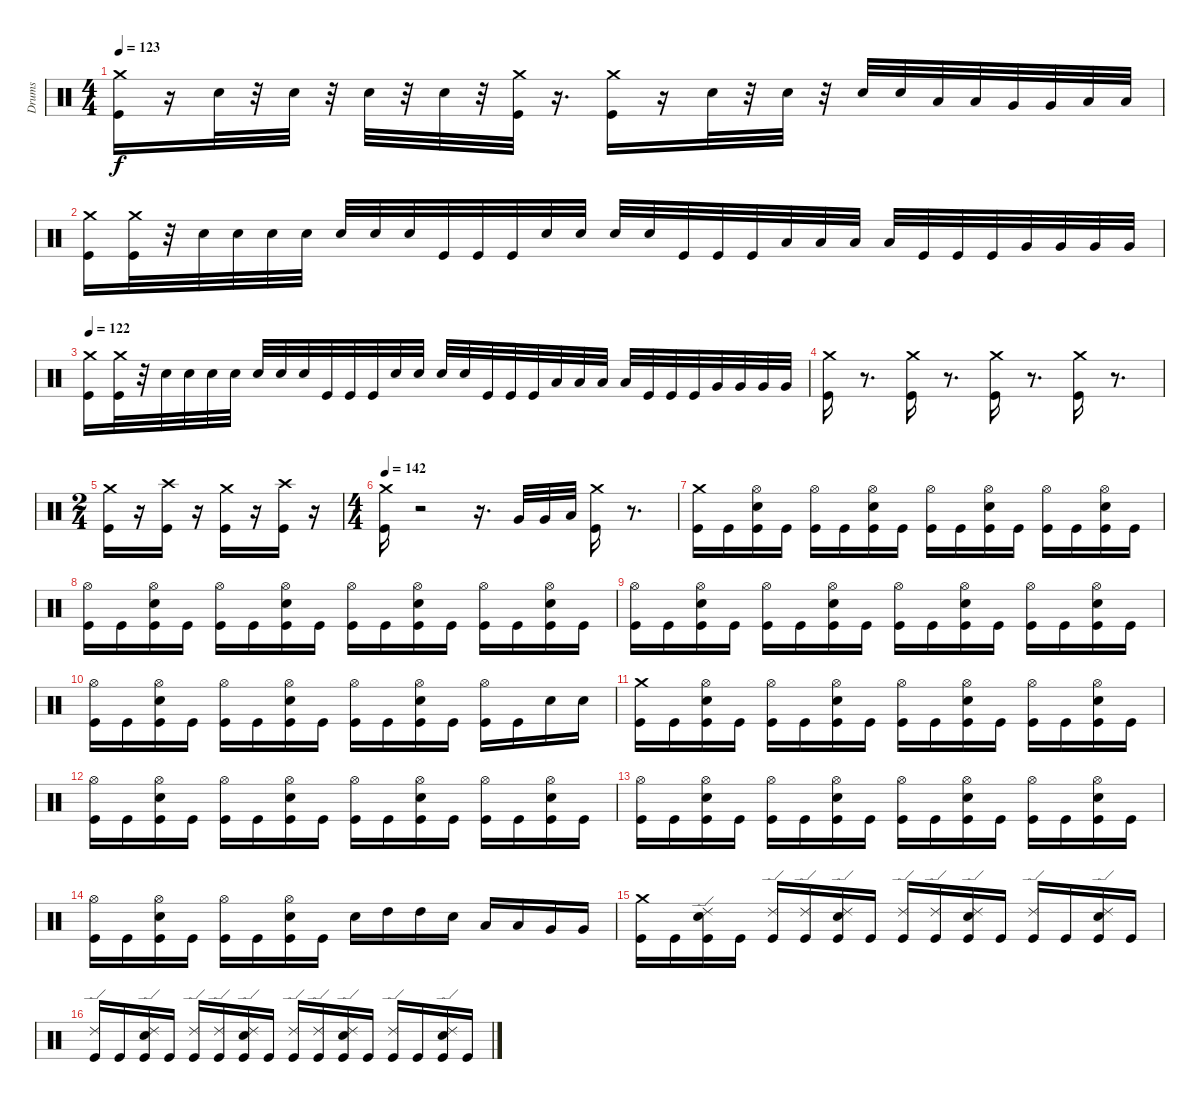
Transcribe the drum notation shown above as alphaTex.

\track ("Drums" "Drums") {instrument percussion}
\staff {score}
\articulation defaults
\ts (4 4)
\tempo 123
\clef neutral
\ks c
("Kick (hit)" "Crash medium (hit)").16{dy f} r.16 "Electric Snare (hit)".32 r.32 "Electric Snare (hit)".32 r.32 "Electric Snare (hit)".32 r.32 "Electric Snare (hit)".32 r.32 ("Crash medium (hit)" "Kick (hit)").32 r.16{d} ("Crash medium (hit)" "Kick (hit)").16 r.16 "Electric Snare (hit)".32 r.32 "Electric Snare (hit)".32 r.32 "Electric Snare (hit)".32 "Electric Snare (hit)".32 "Low Tom (hit)".32 "Low Tom (hit)".32 "Very Low Tom (hit)".32 "Very Low Tom (hit)".32 "Low Floor Tom (hit)".32 "Low Floor Tom (hit)".32 |
("Crash medium (hit)" "Kick (hit)").16 ("Crash medium (hit)" "Kick (hit)").32 r.32 "Electric Snare (hit)".32 "Electric Snare (hit)".32 "Electric Snare (hit)".32 "Electric Snare (hit)".32 "Electric Snare (hit)".32 "Electric Snare (hit)".32 "Electric Snare (hit)".32 "Kick (hit)".32 "Kick (hit)".32 "Kick (hit)".32 "Electric Snare (hit)".32 "Electric Snare (hit)".32 "Electric Snare (hit)".32 "Electric Snare (hit)".32 "Kick (hit)".32 "Kick (hit)".32 "Kick (hit)".32 "Low Tom (hit)".32 "Low Tom (hit)".32 "Low Tom (hit)".32 "Low Tom (hit)".32 "Kick (hit)".32 "Kick (hit)".32 "Kick (hit)".32 "Very Low Tom (hit)".32 "Very Low Tom (hit)".32 "Very Low Tom (hit)".32 "Very Low Tom (hit)".32 |
\tempo 122
("Crash medium (hit)" "Kick (hit)").16 ("Crash medium (hit)" "Kick (hit)").32 r.32 "Electric Snare (hit)".32 "Electric Snare (hit)".32 "Electric Snare (hit)".32 "Electric Snare (hit)".32 "Electric Snare (hit)".32 "Electric Snare (hit)".32 "Electric Snare (hit)".32 "Kick (hit)".32 "Kick (hit)".32 "Kick (hit)".32 "Electric Snare (hit)".32 "Electric Snare (hit)".32 "Electric Snare (hit)".32 "Electric Snare (hit)".32 "Kick (hit)".32 "Kick (hit)".32 "Kick (hit)".32 "Low Tom (hit)".32 "Low Tom (hit)".32 "Low Tom (hit)".32 "Low Tom (hit)".32 "Kick (hit)".32 "Kick (hit)".32 "Kick (hit)".32 "Very Low Tom (hit)".32 "Very Low Tom (hit)".32 "Very Low Tom (hit)".32 "Very Low Tom (hit)".32 |
("Crash medium (hit)" "Kick (hit)").16 r.8{d} ("Crash medium (hit)" "Kick (hit)").16 r.8{d} ("Kick (hit)" "Crash medium (hit)").16 r.8{d} ("Crash medium (hit)" "Kick (hit)").16 r.8{d} |
\ts (2 4)
("Crash medium (hit)" "Kick (hit)").16 r.16 ("Kick (hit)" "Crash high (hit)").16 r.16 ("Kick (hit)" "Crash medium (hit)").16 r.16 ("Kick (hit)" "Crash high (hit)").16 r.16 |
\ts (4 4)
\tempo 142
("Kick (hit)" "Crash medium (hit)").16 r.2 r.16{d} "Very Low Tom (hit)".32 "Very Low Tom (hit)".32 "Low Floor Tom (hit)".32 ("Crash medium (hit)" "Kick (hit)").16 r.8{d} |
("Crash medium (hit)" "Kick (hit)").16 "Kick (hit)".16 ("Hi-Hat (open)" "Electric Snare (hit)" "Kick (hit)").16 "Kick (hit)".16 ("Hi-Hat (open)" "Kick (hit)").16 "Kick (hit)".16 ("Hi-Hat (open)" "Electric Snare (hit)" "Kick (hit)").16 "Kick (hit)".16 ("Hi-Hat (open)" "Kick (hit)").16 "Kick (hit)".16 ("Hi-Hat (open)" "Electric Snare (hit)" "Kick (hit)").16 "Kick (hit)".16 ("Hi-Hat (open)" "Kick (hit)").16 "Kick (hit)".16 ("Hi-Hat (open)" "Electric Snare (hit)" "Kick (hit)").16 "Kick (hit)".16 |
("Hi-Hat (open)" "Kick (hit)").16 "Kick (hit)".16 ("Hi-Hat (open)" "Electric Snare (hit)" "Kick (hit)").16 "Kick (hit)".16 ("Hi-Hat (open)" "Kick (hit)").16 "Kick (hit)".16 ("Hi-Hat (open)" "Electric Snare (hit)" "Kick (hit)").16 "Kick (hit)".16 ("Hi-Hat (open)" "Kick (hit)").16 "Kick (hit)".16 ("Hi-Hat (open)" "Electric Snare (hit)" "Kick (hit)").16 "Kick (hit)".16 ("Hi-Hat (open)" "Kick (hit)").16 "Kick (hit)".16 ("Hi-Hat (open)" "Electric Snare (hit)" "Kick (hit)").16 "Kick (hit)".16 |
("Hi-Hat (open)" "Kick (hit)").16 "Kick (hit)".16 ("Hi-Hat (open)" "Electric Snare (hit)" "Kick (hit)").16 "Kick (hit)".16 ("Hi-Hat (open)" "Kick (hit)").16 "Kick (hit)".16 ("Hi-Hat (open)" "Electric Snare (hit)" "Kick (hit)").16 "Kick (hit)".16 ("Hi-Hat (open)" "Kick (hit)").16 "Kick (hit)".16 ("Hi-Hat (open)" "Electric Snare (hit)" "Kick (hit)").16 "Kick (hit)".16 ("Hi-Hat (open)" "Kick (hit)").16 "Kick (hit)".16 ("Hi-Hat (open)" "Electric Snare (hit)" "Kick (hit)").16 "Kick (hit)".16 |
("Hi-Hat (open)" "Kick (hit)").16 "Kick (hit)".16 ("Hi-Hat (open)" "Electric Snare (hit)" "Kick (hit)").16 "Kick (hit)".16 ("Hi-Hat (open)" "Kick (hit)").16 "Kick (hit)".16 ("Hi-Hat (open)" "Electric Snare (hit)" "Kick (hit)").16 "Kick (hit)".16 ("Hi-Hat (open)" "Kick (hit)").16 "Kick (hit)".16 ("Hi-Hat (open)" "Electric Snare (hit)" "Kick (hit)").16 "Kick (hit)".16 ("Hi-Hat (open)" "Kick (hit)").16 "Kick (hit)".16 "Electric Snare (hit)".16 "Electric Snare (hit)".16 |
("Crash medium (hit)" "Kick (hit)").16 "Kick (hit)".16 ("Hi-Hat (open)" "Electric Snare (hit)" "Kick (hit)").16 "Kick (hit)".16 ("Hi-Hat (open)" "Kick (hit)").16 "Kick (hit)".16 ("Hi-Hat (open)" "Electric Snare (hit)" "Kick (hit)").16 "Kick (hit)".16 ("Hi-Hat (open)" "Kick (hit)").16 "Kick (hit)".16 ("Hi-Hat (open)" "Electric Snare (hit)" "Kick (hit)").16 "Kick (hit)".16 ("Hi-Hat (open)" "Kick (hit)").16 "Kick (hit)".16 ("Hi-Hat (open)" "Electric Snare (hit)" "Kick (hit)").16 "Kick (hit)".16 |
("Hi-Hat (open)" "Kick (hit)").16 "Kick (hit)".16 ("Hi-Hat (open)" "Electric Snare (hit)" "Kick (hit)").16 "Kick (hit)".16 ("Hi-Hat (open)" "Kick (hit)").16 "Kick (hit)".16 ("Hi-Hat (open)" "Electric Snare (hit)" "Kick (hit)").16 "Kick (hit)".16 ("Hi-Hat (open)" "Kick (hit)").16 "Kick (hit)".16 ("Hi-Hat (open)" "Electric Snare (hit)" "Kick (hit)").16 "Kick (hit)".16 ("Hi-Hat (open)" "Kick (hit)").16 "Kick (hit)".16 ("Hi-Hat (open)" "Electric Snare (hit)" "Kick (hit)").16 "Kick (hit)".16 |
("Hi-Hat (open)" "Kick (hit)").16 "Kick (hit)".16 ("Hi-Hat (open)" "Electric Snare (hit)" "Kick (hit)").16 "Kick (hit)".16 ("Hi-Hat (open)" "Kick (hit)").16 "Kick (hit)".16 ("Hi-Hat (open)" "Electric Snare (hit)" "Kick (hit)").16 "Kick (hit)".16 ("Hi-Hat (open)" "Kick (hit)").16 "Kick (hit)".16 ("Hi-Hat (open)" "Electric Snare (hit)" "Kick (hit)").16 "Kick (hit)".16 ("Hi-Hat (open)" "Kick (hit)").16 "Kick (hit)".16 ("Hi-Hat (open)" "Electric Snare (hit)" "Kick (hit)").16 "Kick (hit)".16 |
("Hi-Hat (open)" "Kick (hit)").16 "Kick (hit)".16 ("Hi-Hat (open)" "Electric Snare (hit)" "Kick (hit)").16 "Kick (hit)".16 ("Hi-Hat (open)" "Kick (hit)").16 "Kick (hit)".16 ("Hi-Hat (open)" "Electric Snare (hit)" "Kick (hit)").16 "Kick (hit)".16 "Electric Snare (hit)".16 "High Tom (hit)".16 "High Tom (hit)".16 "Electric Snare (hit)".16 "Low Tom (hit)".16 "Low Tom (hit)".16 "Very Low Tom (hit)".16 "Very Low Tom (hit)".16 |
("Crash medium (hit)" "Kick (hit)").16 "Kick (hit)".16 ("Ride (edge) 2" "Electric Snare (hit)" "Kick (hit)").16 "Kick (hit)".16 ("Ride (edge) 2" "Kick (hit)").16 ("Ride (edge) 2" "Kick (hit)").16 ("Ride (edge) 2" "Electric Snare (hit)" "Kick (hit)").16 "Kick (hit)".16 ("Ride (edge) 2" "Kick (hit)").16 ("Ride (edge) 2" "Kick (hit)").16 ("Ride (edge) 2" "Electric Snare (hit)" "Kick (hit)").16 "Kick (hit)".16 ("Ride (edge) 2" "Kick (hit)").16 "Kick (hit)".16 ("Ride (edge) 2" "Electric Snare (hit)" "Kick (hit)").16 "Kick (hit)".16 |
("Ride (edge) 2" "Kick (hit)").16 "Kick (hit)".16 ("Ride (edge) 2" "Electric Snare (hit)" "Kick (hit)").16 "Kick (hit)".16 ("Ride (edge) 2" "Kick (hit)").16 ("Ride (edge) 2" "Kick (hit)").16 ("Ride (edge) 2" "Electric Snare (hit)" "Kick (hit)").16 "Kick (hit)".16 ("Ride (edge) 2" "Kick (hit)").16 ("Ride (edge) 2" "Kick (hit)").16 ("Ride (edge) 2" "Electric Snare (hit)" "Kick (hit)").16 "Kick (hit)".16 ("Ride (edge) 2" "Kick (hit)").16 "Kick (hit)".16 ("Ride (edge) 2" "Electric Snare (hit)" "Kick (hit)").16 "Kick (hit)".16
